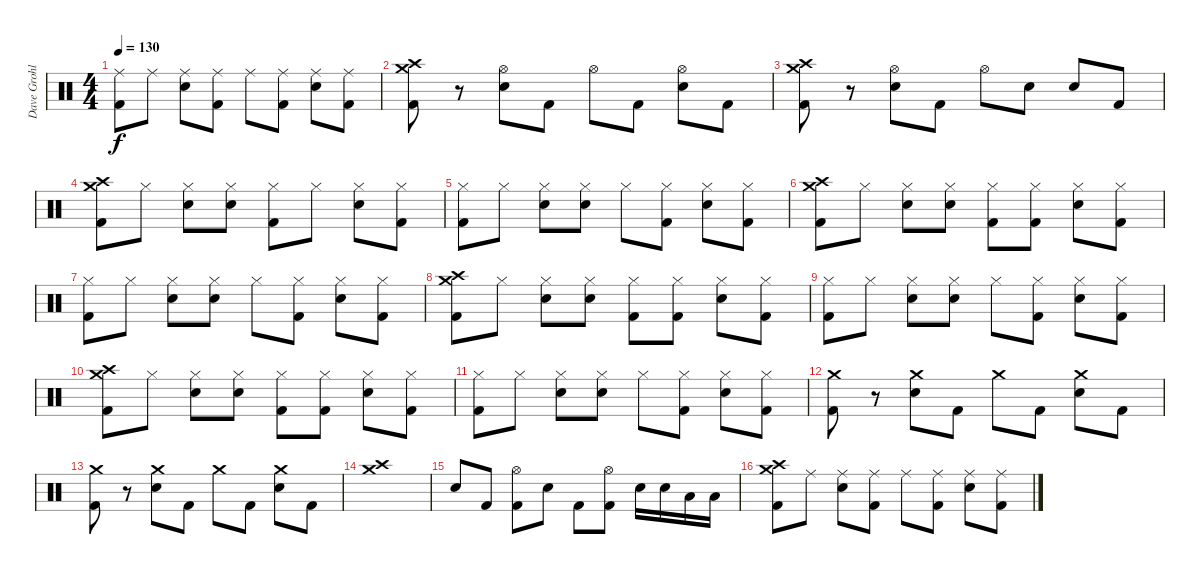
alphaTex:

\track ("Dave Grohl" "Dave Grohl") {instrument percussion}
\staff {score}
\articulation defaults
\ts (4 4)
\tempo 130
\clef neutral
\ks c
("Ride (middle)" "Kick (hit) 2").8{dy f} "Ride (middle)".8 ("Ride (middle)" "Snare (hit) 2").8 ("Ride (middle)" "Kick (hit) 2").8 "Ride (middle)".8 ("Ride (middle)" "Kick (hit) 2").8 ("Ride (middle)" "Snare (hit) 2").8 ("Ride (middle)" "Kick (hit) 2").8 |
("Crash high (hit)" "Crash medium (hit)" "Kick (hit) 2").8 r.8 ("Hi-Hat (open)" "Snare (hit) 2").8 "Kick (hit) 2".8 "Hi-Hat (open)".8 "Kick (hit) 2".8 ("Hi-Hat (open)" "Snare (hit) 2").8 "Kick (hit) 2".8 |
("Crash high (hit)" "Crash medium (hit)" "Kick (hit) 2").8 r.8 ("Hi-Hat (open)" "Snare (hit) 2").8 "Kick (hit) 2".8 "Hi-Hat (open)".8 "Snare (hit) 2".8 "Snare (hit) 2".8 "Kick (hit) 2".8 |
("Crash high (hit)" "Crash medium (hit)" "Kick (hit) 2").8 "Hi-Hat (closed)".8 ("Hi-Hat (closed)" "Snare (hit) 2").8 ("Hi-Hat (closed)" "Snare (hit) 2").8 ("Hi-Hat (closed)" "Kick (hit) 2").8 "Hi-Hat (closed)".8 ("Hi-Hat (closed)" "Snare (hit) 2").8 ("Hi-Hat (closed)" "Kick (hit) 2").8 |
("Hi-Hat (closed)" "Kick (hit) 2").8 "Hi-Hat (closed)".8 ("Hi-Hat (closed)" "Snare (hit) 2").8 ("Hi-Hat (closed)" "Snare (hit) 2").8 "Hi-Hat (closed)".8 ("Hi-Hat (closed)" "Kick (hit) 2").8 ("Hi-Hat (closed)" "Snare (hit) 2").8 ("Hi-Hat (closed)" "Kick (hit) 2").8 |
("Crash high (hit)" "Crash medium (hit)" "Kick (hit) 2").8 "Hi-Hat (closed)".8 ("Hi-Hat (closed)" "Snare (hit) 2").8 ("Hi-Hat (closed)" "Snare (hit) 2").8 ("Hi-Hat (closed)" "Kick (hit) 2").8 ("Hi-Hat (closed)" "Kick (hit) 2").8 ("Hi-Hat (closed)" "Snare (hit) 2").8 ("Hi-Hat (closed)" "Kick (hit) 2").8 |
("Hi-Hat (closed)" "Kick (hit) 2").8 "Hi-Hat (closed)".8 ("Hi-Hat (closed)" "Snare (hit) 2").8 ("Hi-Hat (closed)" "Snare (hit) 2").8 "Hi-Hat (closed)".8 ("Hi-Hat (closed)" "Kick (hit) 2").8 ("Hi-Hat (closed)" "Snare (hit) 2").8 ("Hi-Hat (closed)" "Kick (hit) 2").8 |
("Crash high (hit)" "Crash medium (hit)" "Kick (hit) 2").8 "Hi-Hat (closed)".8 ("Hi-Hat (closed)" "Snare (hit) 2").8 ("Hi-Hat (closed)" "Snare (hit) 2").8 ("Hi-Hat (closed)" "Kick (hit) 2").8 ("Hi-Hat (closed)" "Kick (hit) 2").8 ("Hi-Hat (closed)" "Snare (hit) 2").8 ("Hi-Hat (closed)" "Kick (hit) 2").8 |
("Hi-Hat (closed)" "Kick (hit) 2").8 "Hi-Hat (closed)".8 ("Hi-Hat (closed)" "Snare (hit) 2").8 ("Hi-Hat (closed)" "Snare (hit) 2").8 "Hi-Hat (closed)".8 ("Hi-Hat (closed)" "Kick (hit) 2").8 ("Hi-Hat (closed)" "Snare (hit) 2").8 ("Hi-Hat (closed)" "Kick (hit) 2").8 |
("Crash high (hit)" "Crash medium (hit)" "Kick (hit) 2").8 "Hi-Hat (closed)".8 ("Hi-Hat (closed)" "Snare (hit) 2").8 ("Hi-Hat (closed)" "Snare (hit) 2").8 ("Hi-Hat (closed)" "Kick (hit) 2").8 ("Hi-Hat (closed)" "Kick (hit) 2").8 ("Hi-Hat (closed)" "Snare (hit) 2").8 ("Hi-Hat (closed)" "Kick (hit) 2").8 |
("Hi-Hat (closed)" "Kick (hit) 2").8 "Hi-Hat (closed)".8 ("Hi-Hat (closed)" "Snare (hit) 2").8 ("Hi-Hat (closed)" "Snare (hit) 2").8 "Hi-Hat (closed)".8 ("Hi-Hat (closed)" "Kick (hit) 2").8 ("Hi-Hat (closed)" "Snare (hit) 2").8 ("Hi-Hat (closed)" "Kick (hit) 2").8 |
("Crash medium (hit)" "Kick (hit) 2").8 r.8 ("Crash medium (hit)" "Snare (hit) 2").8 "Kick (hit) 2".8 "Crash medium (hit)".8 "Kick (hit) 2".8 ("Crash medium (hit)" "Snare (hit) 2").8 "Kick (hit) 2".8 |
("Crash medium (hit)" "Kick (hit) 2").8 r.8 ("Crash medium (hit)" "Snare (hit) 2").8 "Kick (hit) 2".8 "Crash medium (hit)".8 "Kick (hit) 2".8 ("Crash medium (hit)" "Snare (hit) 2").8 "Kick (hit) 2".8 |
("Crash high (hit)" "Crash medium (hit)").1 |
"Snare (hit) 2".8 "Kick (hit) 2".8 ("Hi-Hat (open)" "Kick (hit) 2").8 "Snare (hit) 2".8 "Kick (hit) 2".8 ("Hi-Hat (open)" "Kick (hit) 2").8 "Snare (hit) 2".16 "Snare (hit) 2".16 "Low Tom (hit)".16 "Low Tom (hit)".16 |
("Crash high (hit)" "Crash medium (hit)" "Kick (hit) 2").8 "Ride (middle)".8 ("Ride (middle)" "Snare (hit) 2").8 ("Ride (middle)" "Kick (hit) 2").8 "Ride (middle)".8 ("Ride (middle)" "Kick (hit) 2").8 ("Ride (middle)" "Snare (hit) 2").8 ("Ride (middle)" "Kick (hit) 2").8
